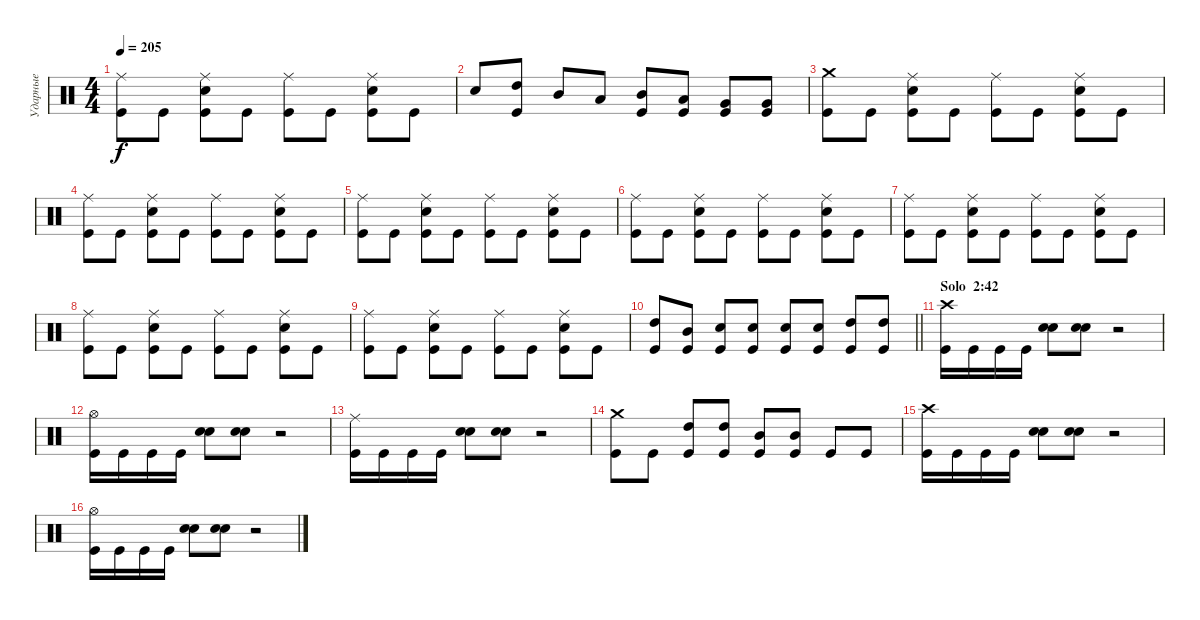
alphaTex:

\track ("Ударные" "Ударные") {instrument percussion}
\staff {score}
\articulation defaults
\ts (4 4)
\tempo 205
\clef neutral
\ks c
("Ride (middle)" "Kick (hit)").8{dy f} "Kick (hit)".8 ("Ride (middle)" "Snare (hit) 2" "Kick (hit)").8 "Kick (hit)".8 ("Ride (middle)" "Kick (hit)").8 "Kick (hit)".8 ("Ride (middle)" "Snare (hit) 2" "Kick (hit)").8 "Kick (hit)".8 |
"Snare (hit) 2".8 ("High Tom (hit)" "Kick (hit)").8 "Mid Tom (hit)".8 "Low Tom (hit)".8 ("Mid Tom (hit)" "Kick (hit)").8 ("Low Tom (hit)" "Kick (hit)").8 ("Very Low Tom (hit)" "Kick (hit)").8 ("Very Low Tom (hit)" "Kick (hit)").8 |
("Crash medium (hit)" "Kick (hit)").8 "Kick (hit)".8 ("Ride (middle)" "Snare (hit) 2" "Kick (hit)").8 "Kick (hit)".8 ("Ride (middle)" "Kick (hit)").8 "Kick (hit)".8 ("Ride (middle)" "Snare (hit) 2" "Kick (hit)").8 "Kick (hit)".8 |
("Ride (middle)" "Kick (hit)").8 "Kick (hit)".8 ("Ride (middle)" "Snare (hit) 2" "Kick (hit)").8 "Kick (hit)".8 ("Ride (middle)" "Kick (hit)").8 "Kick (hit)".8 ("Ride (middle)" "Snare (hit) 2" "Kick (hit)").8 "Kick (hit)".8 |
("Ride (middle)" "Kick (hit)").8 "Kick (hit)".8 ("Ride (middle)" "Snare (hit) 2" "Kick (hit)").8 "Kick (hit)".8 ("Ride (middle)" "Kick (hit)").8 "Kick (hit)".8 ("Ride (middle)" "Snare (hit) 2" "Kick (hit)").8 "Kick (hit)".8 |
("Ride (middle)" "Kick (hit)").8 "Kick (hit)".8 ("Ride (middle)" "Snare (hit) 2" "Kick (hit)").8 "Kick (hit)".8 ("Ride (middle)" "Kick (hit)").8 "Kick (hit)".8 ("Ride (middle)" "Snare (hit) 2" "Kick (hit)").8 "Kick (hit)".8 |
("Ride (middle)" "Kick (hit)").8 "Kick (hit)".8 ("Ride (middle)" "Snare (hit) 2" "Kick (hit)").8 "Kick (hit)".8 ("Ride (middle)" "Kick (hit)").8 "Kick (hit)".8 ("Ride (middle)" "Snare (hit) 2" "Kick (hit)").8 "Kick (hit)".8 |
("Ride (middle)" "Kick (hit)").8 "Kick (hit)".8 ("Ride (middle)" "Snare (hit) 2" "Kick (hit)").8 "Kick (hit)".8 ("Ride (middle)" "Kick (hit)").8 "Kick (hit)".8 ("Ride (middle)" "Snare (hit) 2" "Kick (hit)").8 "Kick (hit)".8 |
("Ride (middle)" "Kick (hit)").8 "Kick (hit)".8 ("Ride (middle)" "Snare (hit) 2" "Kick (hit)").8 "Kick (hit)".8 ("Ride (middle)" "Kick (hit)").8 "Kick (hit)".8 ("Ride (middle)" "Snare (hit) 2" "Kick (hit)").8 "Kick (hit)".8 |
\barLineRight lightlight
("High Tom (hit)" "Kick (hit)").8 ("Mid Tom (hit)" "Kick (hit)").8 ("Snare (hit) 2" "Kick (hit)").8 ("Snare (hit) 2" "Kick (hit)").8 ("Snare (hit) 2" "Kick (hit)").8 ("Snare (hit) 2" "Kick (hit)").8 ("High Tom (hit)" "Kick (hit)").8 ("High Tom (hit)" "Kick (hit)").8 |
\section ("" "Solo  2:42")
("Crash high (hit)" "Kick (hit)").16 "Kick (hit)".16 "Kick (hit)".16 "Kick (hit)".16 ("Snare (hit) 2" "Snare (hit) 2").8{bu 60} ("Snare (hit) 2" "Snare (hit) 2").8{bu 60} r.2 |
("Hi-Hat (open)" "Kick (hit)").16 "Kick (hit)".16 "Kick (hit)".16 "Kick (hit)".16 ("Snare (hit) 2" "Snare (hit) 2").8{bu 60} ("Snare (hit) 2" "Snare (hit) 2").8{bu 60} r.2 |
("Ride (middle)" "Kick (hit)").16 "Kick (hit)".16 "Kick (hit)".16 "Kick (hit)".16 ("Snare (hit) 2" "Snare (hit) 2").8{bu 60} ("Snare (hit) 2" "Snare (hit) 2").8{bu 60} r.2 |
("Crash medium (hit)" "Kick (hit)").8 "Kick (hit)".8 ("High Tom (hit)" "Kick (hit)").8 ("High Tom (hit)" "Kick (hit)").8 ("Mid Tom (hit)" "Kick (hit)").8 ("Mid Tom (hit)" "Kick (hit)").8 "Kick (hit)".8 "Kick (hit)".8 |
("Crash high (hit)" "Kick (hit)").16 "Kick (hit)".16 "Kick (hit)".16 "Kick (hit)".16 ("Snare (hit) 2" "Snare (hit) 2").8{bu 60} ("Snare (hit) 2" "Snare (hit) 2").8{bu 60} r.2 |
("Hi-Hat (open)" "Kick (hit)").16 "Kick (hit)".16 "Kick (hit)".16 "Kick (hit)".16 ("Snare (hit) 2" "Snare (hit) 2").8{bu 60} ("Snare (hit) 2" "Snare (hit) 2").8{bu 60} r.2
